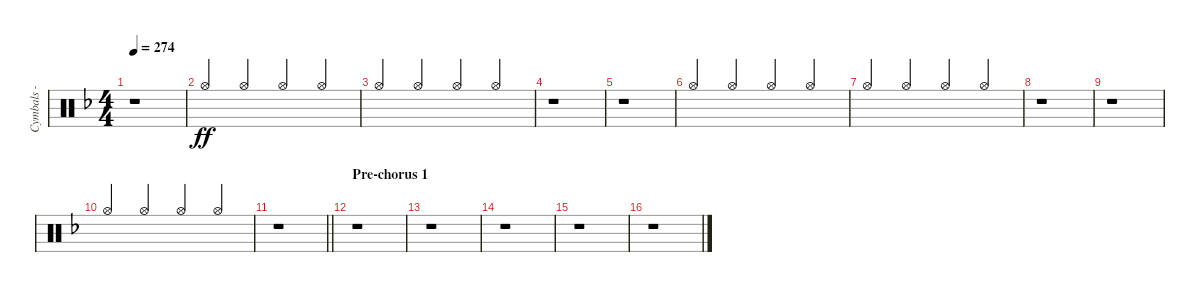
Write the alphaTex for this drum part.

\track ("Cymbals - hi-hat" "Cymbals - ") {instrument percussion}
\staff {score}
\articulation defaults
\ts (4 4)
\tempo 274
\clef neutral
\ks dminor
r.1{dy ff} |
"Hi-Hat (open)".4{beam Up} "Hi-Hat (open)".4{beam Up} "Hi-Hat (open)".4{beam Up} "Hi-Hat (open)".4{beam Up} |
"Hi-Hat (open)".4{beam Up} "Hi-Hat (open)".4{beam Up} "Hi-Hat (open)".4{beam Up} "Hi-Hat (open)".4{beam Up} |
r.1 |
r.1 |
"Hi-Hat (open)".4{beam Up} "Hi-Hat (open)".4{beam Up} "Hi-Hat (open)".4{beam Up} "Hi-Hat (open)".4{beam Up} |
"Hi-Hat (open)".4{beam Up} "Hi-Hat (open)".4{beam Up} "Hi-Hat (open)".4{beam Up} "Hi-Hat (open)".4{beam Up} |
r.1 |
r.1 |
"Hi-Hat (open)".4{beam Up} "Hi-Hat (open)".4{beam Up} "Hi-Hat (open)".4{beam Up} "Hi-Hat (open)".4{beam Up} |
\barLineRight lightlight
r.1 |
\section ("" "Pre-chorus 1")
r.1 |
r.1 |
r.1 |
r.1 |
r.1
